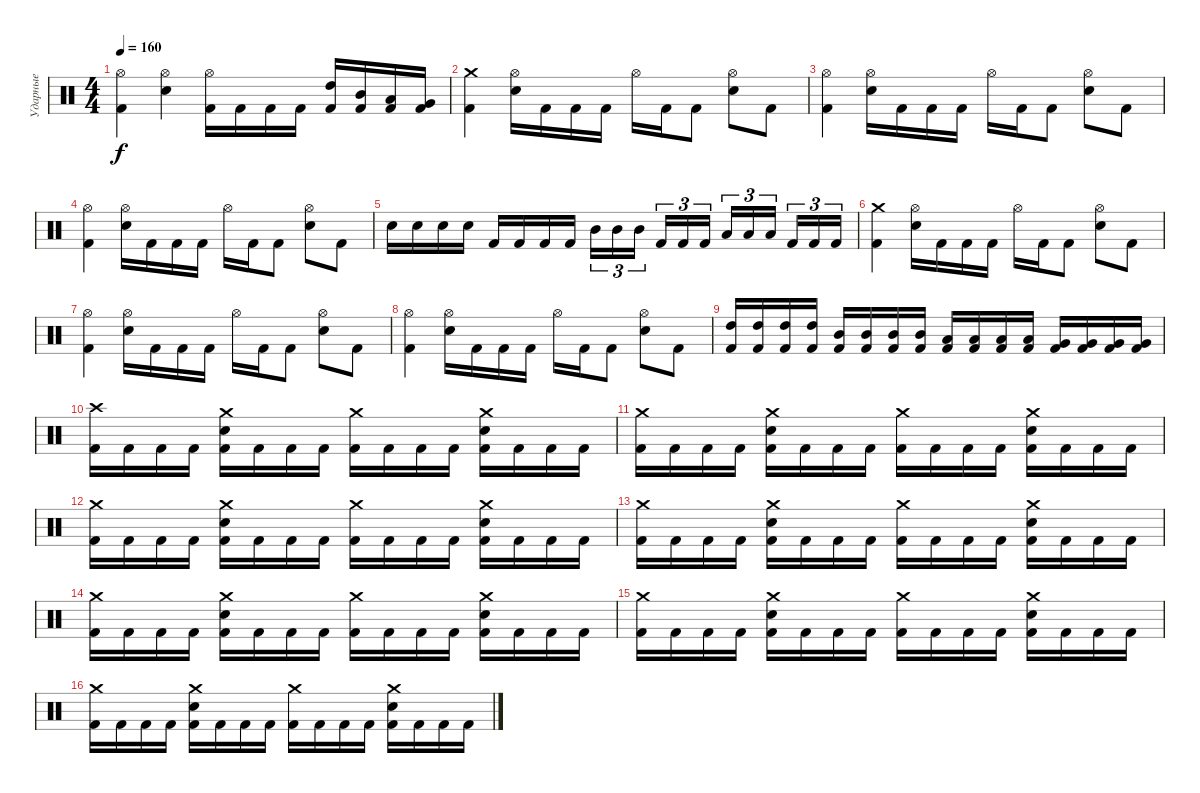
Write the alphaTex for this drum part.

\track ("Ударные" "Ударные") {instrument percussion}
\staff {score}
\articulation defaults
\ts (4 4)
\tempo 160
\clef neutral
\ks c
("Hi-Hat (open)" "Kick (hit) 2").4{dy f} ("Hi-Hat (open)" "Electric Snare (hit)").4 ("Hi-Hat (open)" "Kick (hit) 2").16 "Kick (hit) 2".16 "Kick (hit) 2".16 "Kick (hit) 2".16 ("High Tom (hit)" "Kick (hit) 2").16 ("Mid Tom (hit)" "Kick (hit) 2").16 ("Low Tom (hit)" "Kick (hit) 2").16 ("Very Low Tom (hit)" "Kick (hit) 2").16 |
("Crash medium (hit)" "Kick (hit) 2").4 ("Hi-Hat (open)" "Electric Snare (hit)").16 "Kick (hit) 2".16 "Kick (hit) 2".16 "Kick (hit) 2".16 "Hi-Hat (open)".16 "Kick (hit) 2".16 "Kick (hit) 2".8 ("Hi-Hat (open)" "Electric Snare (hit)").8 "Kick (hit) 2".8 |
("Hi-Hat (open)" "Kick (hit) 2").4 ("Hi-Hat (open)" "Electric Snare (hit)").16 "Kick (hit) 2".16 "Kick (hit) 2".16 "Kick (hit) 2".16 "Hi-Hat (open)".16 "Kick (hit) 2".16 "Kick (hit) 2".8 ("Hi-Hat (open)" "Electric Snare (hit)").8 "Kick (hit) 2".8 |
("Hi-Hat (open)" "Kick (hit) 2").4 ("Hi-Hat (open)" "Electric Snare (hit)").16 "Kick (hit) 2".16 "Kick (hit) 2".16 "Kick (hit) 2".16 "Hi-Hat (open)".16 "Kick (hit) 2".16 "Kick (hit) 2".8 ("Hi-Hat (open)" "Electric Snare (hit)").8 "Kick (hit) 2".8 |
"Electric Snare (hit)".16 "Electric Snare (hit)".16 "Electric Snare (hit)".16 "Electric Snare (hit)".16 "Kick (hit) 2".16 "Kick (hit) 2".16 "Kick (hit) 2".16 "Kick (hit) 2".16 "Mid Tom (hit)".16{tu (3 2)} "Mid Tom (hit)".16{tu (3 2)} "Mid Tom (hit)".16{tu (3 2) beam splitsecondary} "Kick (hit) 2".16{tu (3 2)} "Kick (hit) 2".16{tu (3 2)} "Kick (hit) 2".16{tu (3 2)} "Low Tom (hit)".16{tu (3 2)} "Low Tom (hit)".16{tu (3 2)} "Low Tom (hit)".16{tu (3 2) beam splitsecondary} "Kick (hit) 2".16{tu (3 2)} "Kick (hit) 2".16{tu (3 2)} "Kick (hit) 2".16{tu (3 2)} |
("Crash medium (hit)" "Kick (hit) 2").4 ("Hi-Hat (open)" "Electric Snare (hit)").16 "Kick (hit) 2".16 "Kick (hit) 2".16 "Kick (hit) 2".16 "Hi-Hat (open)".16 "Kick (hit) 2".16 "Kick (hit) 2".8 ("Hi-Hat (open)" "Electric Snare (hit)").8 "Kick (hit) 2".8 |
("Hi-Hat (open)" "Kick (hit) 2").4 ("Hi-Hat (open)" "Electric Snare (hit)").16 "Kick (hit) 2".16 "Kick (hit) 2".16 "Kick (hit) 2".16 "Hi-Hat (open)".16 "Kick (hit) 2".16 "Kick (hit) 2".8 ("Hi-Hat (open)" "Electric Snare (hit)").8 "Kick (hit) 2".8 |
("Hi-Hat (open)" "Kick (hit) 2").4 ("Hi-Hat (open)" "Electric Snare (hit)").16 "Kick (hit) 2".16 "Kick (hit) 2".16 "Kick (hit) 2".16 "Hi-Hat (open)".16 "Kick (hit) 2".16 "Kick (hit) 2".8 ("Hi-Hat (open)" "Electric Snare (hit)").8 "Kick (hit) 2".8 |
("High Tom (hit)" "Kick (hit) 2").16 ("High Tom (hit)" "Kick (hit) 2").16 ("High Tom (hit)" "Kick (hit) 2").16 ("High Tom (hit)" "Kick (hit) 2").16 ("Mid Tom (hit)" "Kick (hit) 2").16 ("Mid Tom (hit)" "Kick (hit) 2").16 ("Mid Tom (hit)" "Kick (hit) 2").16 ("Mid Tom (hit)" "Kick (hit) 2").16 ("Low Tom (hit)" "Kick (hit) 2").16 ("Low Tom (hit)" "Kick (hit) 2").16 ("Low Tom (hit)" "Kick (hit) 2").16 ("Low Tom (hit)" "Kick (hit) 2").16 ("Very Low Tom (hit)" "Kick (hit) 2").16 ("Very Low Tom (hit)" "Kick (hit) 2").16 ("Very Low Tom (hit)" "Kick (hit) 2").16 ("Very Low Tom (hit)" "Kick (hit) 2").16 |
("Crash high (hit)" "Kick (hit) 2").16 "Kick (hit) 2".16 "Kick (hit) 2".16 "Kick (hit) 2".16 ("Crash medium (hit)" "Electric Snare (hit)" "Kick (hit) 2").16 "Kick (hit) 2".16 "Kick (hit) 2".16 "Kick (hit) 2".16 ("Crash medium (hit)" "Kick (hit) 2").16 "Kick (hit) 2".16 "Kick (hit) 2".16 "Kick (hit) 2".16 ("Crash medium (hit)" "Electric Snare (hit)" "Kick (hit) 2").16 "Kick (hit) 2".16 "Kick (hit) 2".16 "Kick (hit) 2".16 |
("Crash medium (hit)" "Kick (hit) 2").16 "Kick (hit) 2".16 "Kick (hit) 2".16 "Kick (hit) 2".16 ("Crash medium (hit)" "Electric Snare (hit)" "Kick (hit) 2").16 "Kick (hit) 2".16 "Kick (hit) 2".16 "Kick (hit) 2".16 ("Crash medium (hit)" "Kick (hit) 2").16 "Kick (hit) 2".16 "Kick (hit) 2".16 "Kick (hit) 2".16 ("Crash medium (hit)" "Electric Snare (hit)" "Kick (hit) 2").16 "Kick (hit) 2".16 "Kick (hit) 2".16 "Kick (hit) 2".16 |
("Crash medium (hit)" "Kick (hit) 2").16 "Kick (hit) 2".16 "Kick (hit) 2".16 "Kick (hit) 2".16 ("Crash medium (hit)" "Electric Snare (hit)" "Kick (hit) 2").16 "Kick (hit) 2".16 "Kick (hit) 2".16 "Kick (hit) 2".16 ("Crash medium (hit)" "Kick (hit) 2").16 "Kick (hit) 2".16 "Kick (hit) 2".16 "Kick (hit) 2".16 ("Crash medium (hit)" "Electric Snare (hit)" "Kick (hit) 2").16 "Kick (hit) 2".16 "Kick (hit) 2".16 "Kick (hit) 2".16 |
("Crash medium (hit)" "Kick (hit) 2").16 "Kick (hit) 2".16 "Kick (hit) 2".16 "Kick (hit) 2".16 ("Crash medium (hit)" "Electric Snare (hit)" "Kick (hit) 2").16 "Kick (hit) 2".16 "Kick (hit) 2".16 "Kick (hit) 2".16 ("Crash medium (hit)" "Kick (hit) 2").16 "Kick (hit) 2".16 "Kick (hit) 2".16 "Kick (hit) 2".16 ("Crash medium (hit)" "Electric Snare (hit)" "Kick (hit) 2").16 "Kick (hit) 2".16 "Kick (hit) 2".16 "Kick (hit) 2".16 |
("Crash medium (hit)" "Kick (hit) 2").16 "Kick (hit) 2".16 "Kick (hit) 2".16 "Kick (hit) 2".16 ("Crash medium (hit)" "Electric Snare (hit)" "Kick (hit) 2").16 "Kick (hit) 2".16 "Kick (hit) 2".16 "Kick (hit) 2".16 ("Crash medium (hit)" "Kick (hit) 2").16 "Kick (hit) 2".16 "Kick (hit) 2".16 "Kick (hit) 2".16 ("Crash medium (hit)" "Electric Snare (hit)" "Kick (hit) 2").16 "Kick (hit) 2".16 "Kick (hit) 2".16 "Kick (hit) 2".16 |
("Crash medium (hit)" "Kick (hit) 2").16 "Kick (hit) 2".16 "Kick (hit) 2".16 "Kick (hit) 2".16 ("Crash medium (hit)" "Electric Snare (hit)" "Kick (hit) 2").16 "Kick (hit) 2".16 "Kick (hit) 2".16 "Kick (hit) 2".16 ("Crash medium (hit)" "Kick (hit) 2").16 "Kick (hit) 2".16 "Kick (hit) 2".16 "Kick (hit) 2".16 ("Crash medium (hit)" "Electric Snare (hit)" "Kick (hit) 2").16 "Kick (hit) 2".16 "Kick (hit) 2".16 "Kick (hit) 2".16 |
("Crash medium (hit)" "Kick (hit) 2").16 "Kick (hit) 2".16 "Kick (hit) 2".16 "Kick (hit) 2".16 ("Crash medium (hit)" "Electric Snare (hit)" "Kick (hit) 2").16 "Kick (hit) 2".16 "Kick (hit) 2".16 "Kick (hit) 2".16 ("Crash medium (hit)" "Kick (hit) 2").16 "Kick (hit) 2".16 "Kick (hit) 2".16 "Kick (hit) 2".16 ("Crash medium (hit)" "Electric Snare (hit)" "Kick (hit) 2").16 "Kick (hit) 2".16 "Kick (hit) 2".16 "Kick (hit) 2".16
